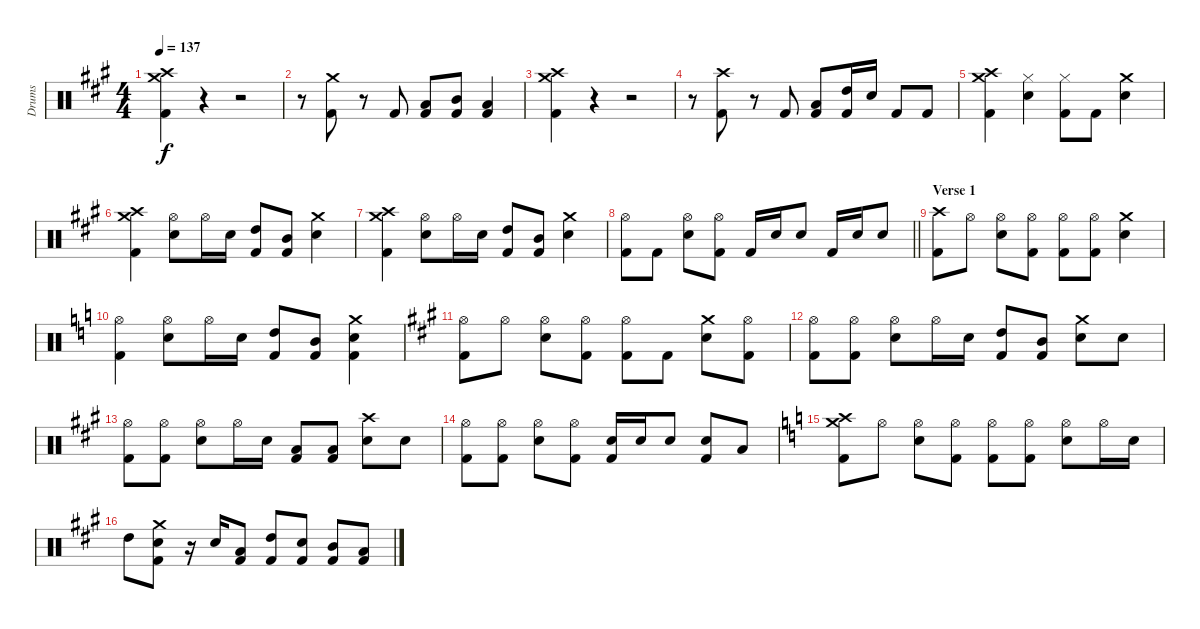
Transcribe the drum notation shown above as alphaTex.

\track ("Drums" "Drums") {instrument percussion}
\staff {score}
\articulation defaults
\ts (4 4)
\tempo 137
\clef neutral
\ks a
("Crash high (hit)" "Crash medium (hit)" "Kick (hit) 2").4{dy f} r.4 r.2 |
r.8 ("Crash medium (hit)" "Kick (hit) 2").8 r.8 "Kick (hit) 2".8 ("Low Tom (hit)" "Kick (hit) 2").8 ("Mid Tom (hit)" "Kick (hit) 2").8 ("Low Tom (hit)" "Kick (hit) 2").4 |
("Crash high (hit)" "Crash medium (hit)" "Kick (hit) 2").4 r.4 r.2 |
r.8 ("Crash high (hit)" "Kick (hit) 2").8 r.8 "Kick (hit) 2".8 ("Low Tom (hit)" "Kick (hit) 2").8 ("High Tom (hit)" "Kick (hit) 2").16 "Snare (hit) 2".16 "Kick (hit) 2".8 "Kick (hit) 2".8 |
("Crash high (hit)" "Crash medium (hit)" "Kick (hit) 2").4 ("Hi-Hat (closed)" "Snare (hit) 2").4 ("Hi-Hat (closed)" "Kick (hit) 2").8 "Kick (hit) 2".8 ("Crash medium (hit)" "Snare (hit) 2").4 |
("Crash high (hit)" "Crash medium (hit)" "Kick (hit) 2").4 ("Hi-Hat (open)" "Snare (hit) 2").8 "Hi-Hat (open)".16 "Snare (hit) 2".16 ("High Tom (hit)" "Kick (hit) 2").8 ("Mid Tom (hit)" "Kick (hit) 2").8 ("Crash medium (hit)" "Snare (hit) 2").4 |
("Crash high (hit)" "Crash medium (hit)" "Kick (hit) 2").4 ("Hi-Hat (open)" "Snare (hit) 2").8 "Hi-Hat (open)".16 "Snare (hit) 2".16 ("High Tom (hit)" "Kick (hit) 2").8 ("Mid Tom (hit)" "Kick (hit) 2").8 ("Crash medium (hit)" "Snare (hit) 2").4 |
\barLineRight lightlight
("Hi-Hat (open)" "Kick (hit) 2").8 "Kick (hit) 2".8 ("Hi-Hat (open)" "Snare (hit) 2").8 ("Hi-Hat (open)" "Kick (hit) 2").8 "Kick (hit) 2".16 "Snare (hit) 2".16 "Snare (hit) 2".8 "Kick (hit) 2".16 "Snare (hit) 2".16 "Snare (hit) 2".8 |
\section ("" "Verse 1")
("Crash high (hit)" "Kick (hit) 2").8 "Hi-Hat (open)".8 ("Hi-Hat (open)" "Snare (hit) 2").8 ("Hi-Hat (open)" "Kick (hit) 2").8 ("Hi-Hat (open)" "Kick (hit) 2").8 ("Hi-Hat (open)" "Kick (hit) 2").8 ("Crash medium (hit)" "Snare (hit) 2").4 |
\ks c
("Hi-Hat (open)" "Kick (hit) 2").4 ("Hi-Hat (open)" "Snare (hit) 2").8 "Hi-Hat (open)".16 "Snare (hit) 2".16 ("High Tom (hit)" "Kick (hit) 2").8 ("Mid Tom (hit)" "Kick (hit) 2").8 ("Crash medium (hit)" "Snare (hit) 2" "Kick (hit) 2").4 |
\ks a
("Hi-Hat (open)" "Kick (hit) 2").8 "Hi-Hat (open)".8 ("Hi-Hat (open)" "Snare (hit) 2").8 ("Hi-Hat (open)" "Kick (hit) 2").8 ("Hi-Hat (open)" "Kick (hit) 2").8 "Kick (hit) 2".8 ("Crash medium (hit)" "Snare (hit) 2").8 ("Hi-Hat (open)" "Kick (hit) 2").8 |
("Hi-Hat (open)" "Kick (hit) 2").8 ("Hi-Hat (open)" "Kick (hit) 2").8 ("Hi-Hat (open)" "Snare (hit) 2").8 "Hi-Hat (open)".16 "Snare (hit) 2".16 ("High Tom (hit)" "Kick (hit) 2").8 ("Mid Tom (hit)" "Kick (hit) 2").8 ("Crash medium (hit)" "Snare (hit) 2").8 "Snare (hit) 2".8 |
("Hi-Hat (open)" "Kick (hit) 2").8 ("Hi-Hat (open)" "Kick (hit) 2").8 ("Hi-Hat (open)" "Snare (hit) 2").8 "Hi-Hat (open)".16 "Snare (hit) 2".16 ("Low Tom (hit)" "Kick (hit) 2").8 ("Low Tom (hit)" "Kick (hit) 2").8 ("Crash high (hit)" "Snare (hit) 2").8 "Snare (hit) 2".8 |
("Hi-Hat (open)" "Kick (hit) 2").8 ("Hi-Hat (open)" "Kick (hit) 2").8 ("Hi-Hat (open)" "Snare (hit) 2").8 ("Hi-Hat (open)" "Kick (hit) 2").8 ("Snare (hit) 2" "Kick (hit) 2").16 "Snare (hit) 2".16 "Snare (hit) 2".8 ("Snare (hit) 2" "Kick (hit) 2").8 "Low Tom (hit)".8 |
\ks c
("Crash high (hit)" "Crash medium (hit)" "Kick (hit) 2").8 "Hi-Hat (open)".8 ("Hi-Hat (open)" "Snare (hit) 2").8 ("Hi-Hat (open)" "Kick (hit) 2").8 ("Hi-Hat (open)" "Kick (hit) 2").8 ("Hi-Hat (open)" "Kick (hit) 2").8 ("Hi-Hat (open)" "Snare (hit) 2").8 "Hi-Hat (open)".16 "Snare (hit) 2".16 |
\ks a "High Tom (hit)".8
("Crash medium (hit)" "Snare (hit) 2" "Kick (hit) 2").8 r.16 "Snare (hit) 2".16 ("Low Tom (hit)" "Kick (hit) 2").8 ("High Tom (hit)" "Kick (hit) 2").8 ("Snare (hit) 2" "Kick (hit) 2").8 ("Mid Tom (hit)" "Kick (hit) 2").8 ("Low Tom (hit)" "Kick (hit) 2").8
